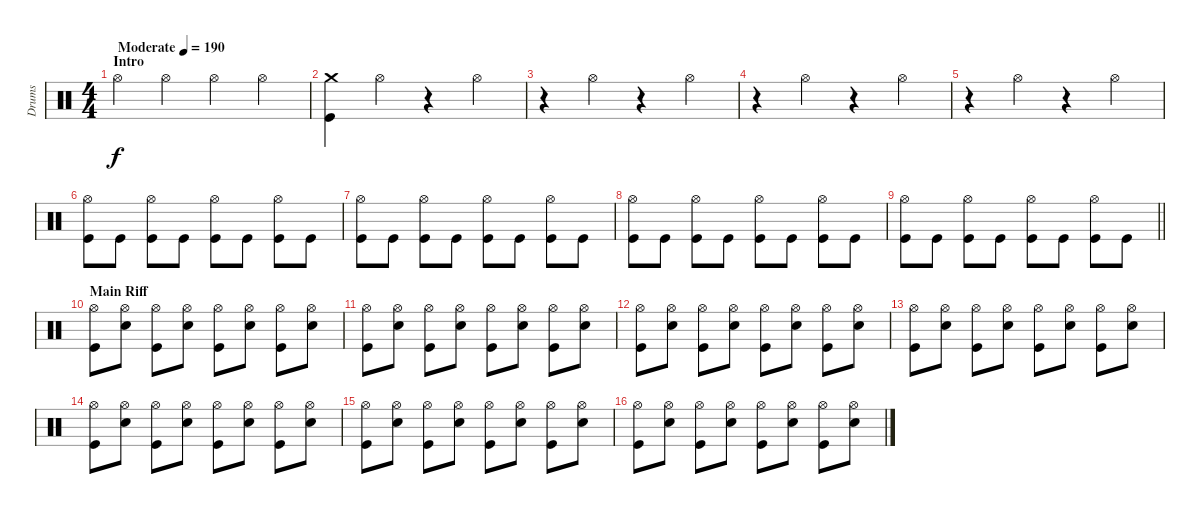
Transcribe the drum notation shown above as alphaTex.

\track ("Drums" "Drums") {instrument percussion}
\staff {score}
\articulation defaults
\ts (4 4)
\section ("" "Intro")
\tempo (190 "Moderate")
\clef neutral
\ks c "Hi-Hat (open)".4{dy f} "Hi-Hat (open)".4 "Hi-Hat (open)".4 "Hi-Hat (open)".4
|
("Crash medium (hit)" "Kick (hit)").4 "Hi-Hat (open)".4 r.4 "Hi-Hat (open)".4 |
r.4 "Hi-Hat (open)".4 r.4 "Hi-Hat (open)".4 |
r.4 "Hi-Hat (open)".4 r.4 "Hi-Hat (open)".4 |
r.4 "Hi-Hat (open)".4 r.4 "Hi-Hat (open)".4 |
("Hi-Hat (open)" "Kick (hit)").8 "Kick (hit)".8 ("Hi-Hat (open)" "Kick (hit)").8 "Kick (hit)".8 ("Hi-Hat (open)" "Kick (hit)").8 "Kick (hit)".8 ("Hi-Hat (open)" "Kick (hit)").8 "Kick (hit)".8 |
("Hi-Hat (open)" "Kick (hit)").8 "Kick (hit)".8 ("Hi-Hat (open)" "Kick (hit)").8 "Kick (hit)".8 ("Hi-Hat (open)" "Kick (hit)").8 "Kick (hit)".8 ("Hi-Hat (open)" "Kick (hit)").8 "Kick (hit)".8 |
("Hi-Hat (open)" "Kick (hit)").8 "Kick (hit)".8 ("Hi-Hat (open)" "Kick (hit)").8 "Kick (hit)".8 ("Hi-Hat (open)" "Kick (hit)").8 "Kick (hit)".8 ("Hi-Hat (open)" "Kick (hit)").8 "Kick (hit)".8 |
\barLineRight lightlight
("Hi-Hat (open)" "Kick (hit)").8 "Kick (hit)".8 ("Hi-Hat (open)" "Kick (hit)").8 "Kick (hit)".8 ("Hi-Hat (open)" "Kick (hit)").8 "Kick (hit)".8 ("Hi-Hat (open)" "Kick (hit)").8 "Kick (hit)".8 |
\section ("" "Main Riff")
("Hi-Hat (open)" "Kick (hit)").8 ("Hi-Hat (open)" "Snare (hit) 2").8 ("Hi-Hat (open)" "Kick (hit)").8 ("Hi-Hat (open)" "Snare (hit) 2").8 ("Hi-Hat (open)" "Kick (hit)").8 ("Hi-Hat (open)" "Snare (hit) 2").8 ("Hi-Hat (open)" "Kick (hit)").8 ("Hi-Hat (open)" "Snare (hit) 2").8 |
("Hi-Hat (open)" "Kick (hit)").8 ("Hi-Hat (open)" "Snare (hit) 2").8 ("Hi-Hat (open)" "Kick (hit)").8 ("Hi-Hat (open)" "Snare (hit) 2").8 ("Hi-Hat (open)" "Kick (hit)").8 ("Hi-Hat (open)" "Snare (hit) 2").8 ("Hi-Hat (open)" "Kick (hit)").8 ("Hi-Hat (open)" "Snare (hit) 2").8 |
("Hi-Hat (open)" "Kick (hit)").8 ("Hi-Hat (open)" "Snare (hit) 2").8 ("Hi-Hat (open)" "Kick (hit)").8 ("Hi-Hat (open)" "Snare (hit) 2").8 ("Hi-Hat (open)" "Kick (hit)").8 ("Hi-Hat (open)" "Snare (hit) 2").8 ("Hi-Hat (open)" "Kick (hit)").8 ("Hi-Hat (open)" "Snare (hit) 2").8 |
("Hi-Hat (open)" "Kick (hit)").8 ("Hi-Hat (open)" "Snare (hit) 2").8 ("Hi-Hat (open)" "Kick (hit)").8 ("Hi-Hat (open)" "Snare (hit) 2").8 ("Hi-Hat (open)" "Kick (hit)").8 ("Hi-Hat (open)" "Snare (hit) 2").8 ("Hi-Hat (open)" "Kick (hit)").8 ("Hi-Hat (open)" "Snare (hit) 2").8 |
("Hi-Hat (open)" "Kick (hit)").8 ("Hi-Hat (open)" "Snare (hit) 2").8 ("Hi-Hat (open)" "Kick (hit)").8 ("Hi-Hat (open)" "Snare (hit) 2").8 ("Hi-Hat (open)" "Kick (hit)").8 ("Hi-Hat (open)" "Snare (hit) 2").8 ("Hi-Hat (open)" "Kick (hit)").8 ("Hi-Hat (open)" "Snare (hit) 2").8 |
("Hi-Hat (open)" "Kick (hit)").8 ("Hi-Hat (open)" "Snare (hit) 2").8 ("Hi-Hat (open)" "Kick (hit)").8 ("Hi-Hat (open)" "Snare (hit) 2").8 ("Hi-Hat (open)" "Kick (hit)").8 ("Hi-Hat (open)" "Snare (hit) 2").8 ("Hi-Hat (open)" "Kick (hit)").8 ("Hi-Hat (open)" "Snare (hit) 2").8 |
("Hi-Hat (open)" "Kick (hit)").8 ("Hi-Hat (open)" "Snare (hit) 2").8 ("Hi-Hat (open)" "Kick (hit)").8 ("Hi-Hat (open)" "Snare (hit) 2").8 ("Hi-Hat (open)" "Kick (hit)").8 ("Hi-Hat (open)" "Snare (hit) 2").8 ("Hi-Hat (open)" "Kick (hit)").8 ("Hi-Hat (open)" "Snare (hit) 2").8
